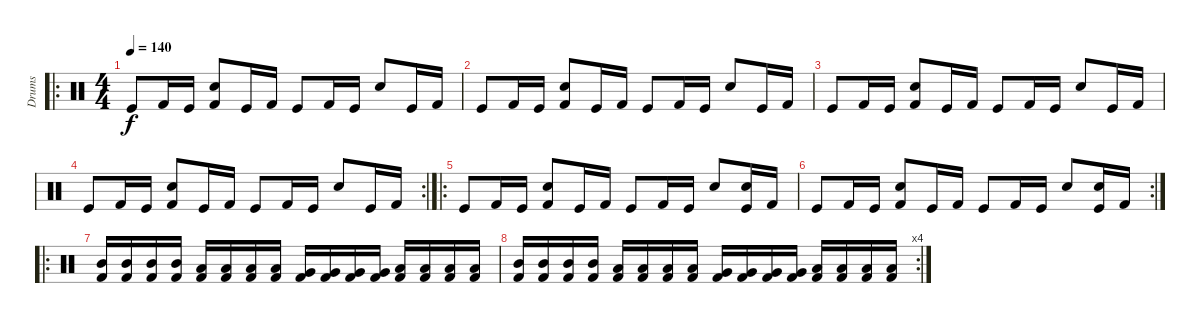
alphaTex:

\track ("Drums" "Drums") {instrument percussion}
\staff {score}
\articulation defaults
\ro
\ts (4 4)
\tempo 140
\clef neutral
\ks c "Kick (hit)".8{dy f} "Kick (hit) 2".16 "Kick (hit)".16
("Snare (hit) 2" "Kick (hit) 2").8 "Kick (hit)".16 "Kick (hit) 2".16 "Kick (hit)".8 "Kick (hit) 2".16 "Kick (hit)".16 "Snare (hit) 2".8 "Kick (hit)".16 "Kick (hit) 2".16 |
"Kick (hit)".8 "Kick (hit) 2".16 "Kick (hit)".16 ("Snare (hit) 2" "Kick (hit) 2").8 "Kick (hit)".16 "Kick (hit) 2".16 "Kick (hit)".8 "Kick (hit) 2".16 "Kick (hit)".16 "Snare (hit) 2".8 "Kick (hit)".16 "Kick (hit) 2".16 |
"Kick (hit)".8 "Kick (hit) 2".16 "Kick (hit)".16 ("Snare (hit) 2" "Kick (hit) 2").8 "Kick (hit)".16 "Kick (hit) 2".16 "Kick (hit)".8 "Kick (hit) 2".16 "Kick (hit)".16 "Snare (hit) 2".8 "Kick (hit)".16 "Kick (hit) 2".16 |
\rc 2 "Kick (hit)".8 "Kick (hit) 2".16 "Kick (hit)".16
("Snare (hit) 2" "Kick (hit) 2").8 "Kick (hit)".16 "Kick (hit) 2".16 "Kick (hit)".8 "Kick (hit) 2".16 "Kick (hit)".16 "Snare (hit) 2".8 "Kick (hit)".16 "Kick (hit) 2".16 |
\ro "Kick (hit)".8 "Kick (hit) 2".16 "Kick (hit)".16
("Snare (hit) 2" "Kick (hit) 2").8 "Kick (hit)".16 "Kick (hit) 2".16 "Kick (hit)".8 "Kick (hit) 2".16 "Kick (hit)".16 "Snare (hit) 2".8 ("Snare (hit) 2" "Kick (hit)").16 "Kick (hit) 2".16 |
\rc 2 "Kick (hit)".8 "Kick (hit) 2".16 "Kick (hit)".16
("Snare (hit) 2" "Kick (hit) 2").8 "Kick (hit)".16 "Kick (hit) 2".16 "Kick (hit)".8 "Kick (hit) 2".16 "Kick (hit)".16 "Snare (hit) 2".8 ("Snare (hit) 2" "Kick (hit)").16 "Kick (hit) 2".16 |
\ro
("Mid Tom (hit)" "Kick (hit) 2").16 ("Mid Tom (hit)" "Kick (hit) 2").16 ("Mid Tom (hit)" "Kick (hit) 2").16 ("Mid Tom (hit)" "Kick (hit) 2").16 ("Low Tom (hit)" "Kick (hit) 2").16 ("Low Tom (hit)" "Kick (hit) 2").16 ("Low Tom (hit)" "Kick (hit) 2").16 ("Low Tom (hit)" "Kick (hit) 2").16 ("Very Low Tom (hit)" "Kick (hit) 2").16 ("Very Low Tom (hit)" "Kick (hit) 2").16 ("Very Low Tom (hit)" "Kick (hit) 2").16 ("Very Low Tom (hit)" "Kick (hit) 2").16 ("Low Floor Tom (hit)" "Kick (hit) 2").16 ("Low Floor Tom (hit)" "Kick (hit) 2").16 ("Low Floor Tom (hit)" "Kick (hit) 2").16 ("Low Floor Tom (hit)" "Kick (hit) 2").16 |
\rc 4
("Mid Tom (hit)" "Kick (hit) 2").16 ("Mid Tom (hit)" "Kick (hit) 2").16 ("Mid Tom (hit)" "Kick (hit) 2").16 ("Mid Tom (hit)" "Kick (hit) 2").16 ("Low Tom (hit)" "Kick (hit) 2").16 ("Low Tom (hit)" "Kick (hit) 2").16 ("Low Tom (hit)" "Kick (hit) 2").16 ("Low Tom (hit)" "Kick (hit) 2").16 ("Very Low Tom (hit)" "Kick (hit) 2").16 ("Very Low Tom (hit)" "Kick (hit) 2").16 ("Very Low Tom (hit)" "Kick (hit) 2").16 ("Very Low Tom (hit)" "Kick (hit) 2").16 ("Low Floor Tom (hit)" "Kick (hit) 2").16 ("Low Floor Tom (hit)" "Kick (hit) 2").16 ("Low Floor Tom (hit)" "Kick (hit) 2").16 ("Low Floor Tom (hit)" "Kick (hit) 2").16
